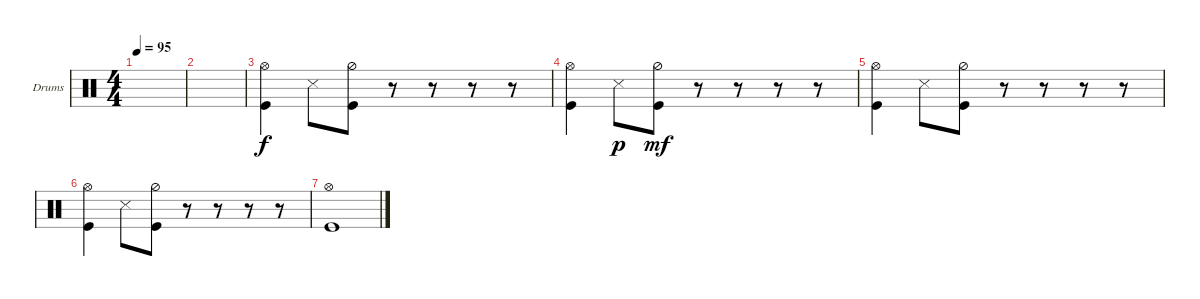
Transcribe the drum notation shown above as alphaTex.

\defaultSystemsLayout 4
\bracketExtendMode groupsimilarinstruments
\firstSystemTrackNameOrientation horizontal
\otherSystemsTrackNameOrientation horizontal
\track ("Drums" "Drums") {instrument percussion}
\staff {score}
\articulation defaults
\ts (4 4)
\tempo 95
\clef neutral
\ks c
|
|
("Kick (hit)" "Hi-Hat (open)").4 "Snare (side stick) 3".8 ("Kick (hit)" "Hi-Hat (half)").8 r.8 r.8 r.8 r.8 |
("Kick (hit)" "Hi-Hat (open)").4 "Snare (side stick) 3".8{dy p} ("Kick (hit)" "Hi-Hat (half)").8{dy mf} r.8 r.8 r.8 r.8 |
("Kick (hit)" "Hi-Hat (open)").4 "Snare (side stick) 3".8 ("Kick (hit)" "Hi-Hat (half)").8 r.8 r.8 r.8 r.8 |
("Kick (hit)" "Hi-Hat (open)").4 "Snare (side stick) 3".8 ("Kick (hit)" "Hi-Hat (half)").8 r.8 r.8 r.8 r.8 |
("Kick (hit)" "Hi-Hat (open)").1
